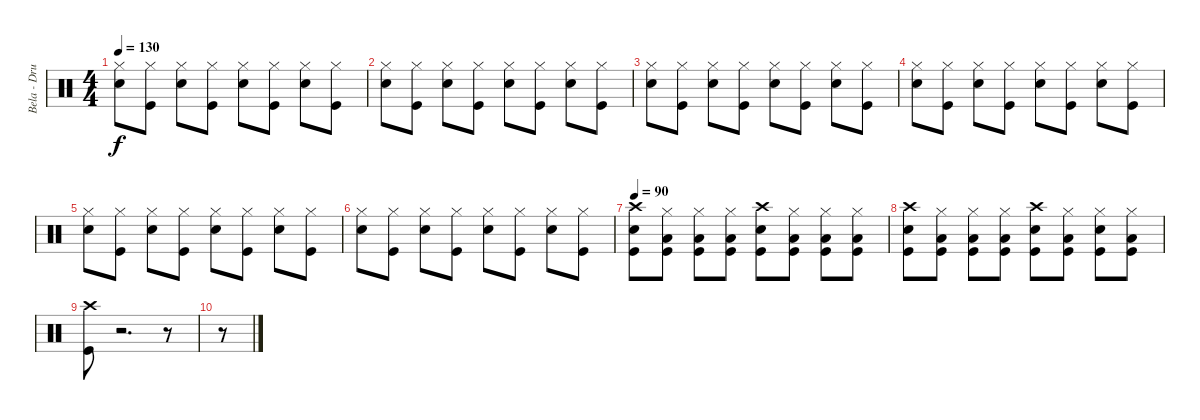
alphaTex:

\track ("Bela - Drums" "Bela - Dru") {instrument percussion}
\staff {score}
\articulation defaults
\ts (4 4)
\tempo 130
\clef neutral
\ks c
("Hi-Hat (closed)" "Electric Snare (hit)").8{dy f} ("Hi-Hat (closed)" "Kick (hit)").8 ("Hi-Hat (closed)" "Electric Snare (hit)").8 ("Hi-Hat (closed)" "Kick (hit)").8 ("Hi-Hat (closed)" "Electric Snare (hit)").8 ("Hi-Hat (closed)" "Kick (hit)").8 ("Hi-Hat (closed)" "Electric Snare (hit)").8 ("Hi-Hat (closed)" "Kick (hit)").8 |
("Hi-Hat (closed)" "Electric Snare (hit)").8 ("Hi-Hat (closed)" "Kick (hit)").8 ("Hi-Hat (closed)" "Electric Snare (hit)").8 ("Hi-Hat (closed)" "Kick (hit)").8 ("Hi-Hat (closed)" "Electric Snare (hit)").8 ("Hi-Hat (closed)" "Kick (hit)").8 ("Hi-Hat (closed)" "Electric Snare (hit)").8 ("Hi-Hat (closed)" "Kick (hit)").8 |
("Hi-Hat (closed)" "Electric Snare (hit)").8 ("Hi-Hat (closed)" "Kick (hit)").8 ("Hi-Hat (closed)" "Electric Snare (hit)").8 ("Hi-Hat (closed)" "Kick (hit)").8 ("Hi-Hat (closed)" "Electric Snare (hit)").8 ("Hi-Hat (closed)" "Kick (hit)").8 ("Hi-Hat (closed)" "Electric Snare (hit)").8 ("Hi-Hat (closed)" "Kick (hit)").8 |
("Hi-Hat (closed)" "Electric Snare (hit)").8 ("Hi-Hat (closed)" "Kick (hit)").8 ("Hi-Hat (closed)" "Electric Snare (hit)").8 ("Hi-Hat (closed)" "Kick (hit)").8 ("Hi-Hat (closed)" "Electric Snare (hit)").8 ("Hi-Hat (closed)" "Kick (hit)").8 ("Hi-Hat (closed)" "Electric Snare (hit)").8 ("Hi-Hat (closed)" "Kick (hit)").8 |
("Hi-Hat (closed)" "Electric Snare (hit)").8 ("Hi-Hat (closed)" "Kick (hit)").8 ("Hi-Hat (closed)" "Electric Snare (hit)").8 ("Hi-Hat (closed)" "Kick (hit)").8 ("Hi-Hat (closed)" "Electric Snare (hit)").8 ("Hi-Hat (closed)" "Kick (hit)").8 ("Hi-Hat (closed)" "Electric Snare (hit)").8 ("Hi-Hat (closed)" "Kick (hit)").8 |
("Hi-Hat (closed)" "Electric Snare (hit)").8 ("Hi-Hat (closed)" "Kick (hit)").8 ("Hi-Hat (closed)" "Electric Snare (hit)").8 ("Hi-Hat (closed)" "Kick (hit)").8 ("Hi-Hat (closed)" "Electric Snare (hit)").8 ("Hi-Hat (closed)" "Kick (hit)").8 ("Hi-Hat (closed)" "Electric Snare (hit)").8 ("Hi-Hat (closed)" "Kick (hit)").8 |
\tempo 90
("Crash high (hit)" "Electric Snare (hit)" "Kick (hit)").8 ("Hi-Hat (closed)" "Low Tom (hit)" "Kick (hit)").8 ("Hi-Hat (closed)" "Low Tom (hit)" "Kick (hit)").8 ("Hi-Hat (closed)" "Low Tom (hit)" "Kick (hit)").8 ("Crash high (hit)" "Electric Snare (hit)" "Kick (hit)").8 ("Hi-Hat (closed)" "Low Tom (hit)" "Kick (hit)").8 ("Hi-Hat (closed)" "Low Tom (hit)" "Kick (hit)").8 ("Hi-Hat (closed)" "Low Tom (hit)" "Kick (hit)").8 |
("Crash high (hit)" "Electric Snare (hit)" "Kick (hit)").8 ("Hi-Hat (closed)" "Low Tom (hit)" "Kick (hit)").8 ("Hi-Hat (closed)" "Low Tom (hit)" "Kick (hit)").8 ("Hi-Hat (closed)" "Low Tom (hit)" "Kick (hit)").8 ("Crash high (hit)" "Electric Snare (hit)" "Kick (hit)").8 ("Hi-Hat (closed)" "Low Tom (hit)" "Kick (hit)").8 ("Hi-Hat (closed)" "Electric Snare (hit)" "Kick (hit)").8 ("Hi-Hat (closed)" "Low Tom (hit)" "Kick (hit)").8 |
("Crash high (hit)" "Kick (hit)").8 r.2{d} r.8 |
r.8
